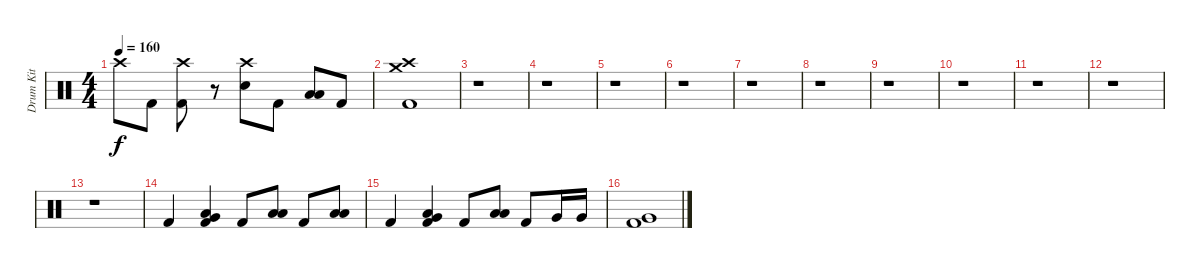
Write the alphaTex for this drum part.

\track ("Drum Kit" "Drum Kit") {instrument percussion}
\staff {score}
\articulation defaults
\ts (4 4)
\tempo 160
\clef neutral
\ks c "Crash high (hit)".8{dy f} "Kick (hit) 2".8
("Crash high (hit)" "Kick (hit) 2").8 r.8 ("Crash high (hit)" "Electric Snare (hit)").8 "Kick (hit) 2".8 ("Low Tom (hit)" "Low Floor Tom (hit)").8 "Kick (hit) 2".8 |
("Crash medium (hit)" "Crash high (hit)" "Kick (hit) 2").1 |
r.1 |
r.1 |
r.1 |
r.1 |
r.1 |
r.1 |
r.1 |
r.1 |
r.1 |
r.1 |
r.1 |
"Kick (hit) 2".4 ("Very Low Tom (hit)" "Low Floor Tom (hit)" "Kick (hit) 2").4 "Kick (hit) 2".8 ("Low Tom (hit)" "Low Floor Tom (hit)").8 "Kick (hit) 2".8 ("Low Tom (hit)" "Low Floor Tom (hit)").8 |
"Kick (hit) 2".4 ("Very Low Tom (hit)" "Low Floor Tom (hit)" "Kick (hit) 2").4 "Kick (hit) 2".8 ("Low Tom (hit)" "Low Floor Tom (hit)").8 "Kick (hit) 2".8 "Very Low Tom (hit)".16 "Very Low Tom (hit)".16 |
("Very Low Tom (hit)" "Kick (hit) 2").1
